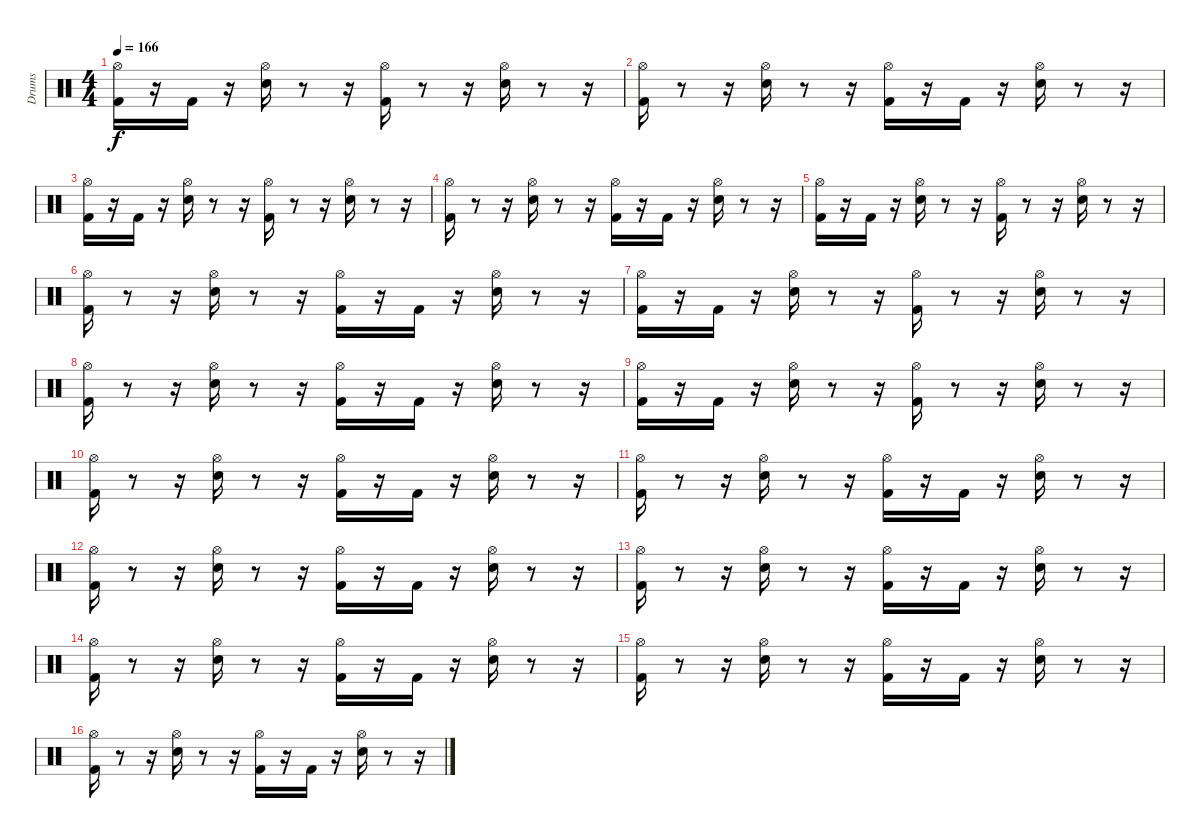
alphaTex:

\track ("Drums" "Drums") {instrument percussion}
\staff {score}
\articulation defaults
\ts (4 4)
\tempo 166
\clef neutral
\ks c
("Hi-Hat (open)" "Kick (hit) 2").16{dy f} r.16 "Kick (hit) 2".16 r.16 ("Snare (hit) 2" "Hi-Hat (open)").16 r.8 r.16 ("Hi-Hat (open)" "Kick (hit) 2").16 r.8 r.16 ("Hi-Hat (open)" "Snare (hit) 2").16 r.8 r.16 |
("Hi-Hat (open)" "Kick (hit) 2").16 r.8 r.16 ("Snare (hit) 2" "Hi-Hat (open)").16 r.8 r.16 ("Kick (hit) 2" "Hi-Hat (open)").16 r.16 "Kick (hit) 2".16 r.16 ("Hi-Hat (open)" "Snare (hit) 2").16 r.8 r.16 |
("Hi-Hat (open)" "Kick (hit) 2").16 r.16 "Kick (hit) 2".16 r.16 ("Snare (hit) 2" "Hi-Hat (open)").16 r.8 r.16 ("Hi-Hat (open)" "Kick (hit) 2").16 r.8 r.16 ("Hi-Hat (open)" "Snare (hit) 2").16 r.8 r.16 |
("Hi-Hat (open)" "Kick (hit) 2").16 r.8 r.16 ("Snare (hit) 2" "Hi-Hat (open)").16 r.8 r.16 ("Kick (hit) 2" "Hi-Hat (open)").16 r.16 "Kick (hit) 2".16 r.16 ("Hi-Hat (open)" "Snare (hit) 2").16 r.8 r.16 |
("Hi-Hat (open)" "Kick (hit) 2").16 r.16 "Kick (hit) 2".16 r.16 ("Snare (hit) 2" "Hi-Hat (open)").16 r.8 r.16 ("Hi-Hat (open)" "Kick (hit) 2").16 r.8 r.16 ("Hi-Hat (open)" "Snare (hit) 2").16 r.8 r.16 |
("Hi-Hat (open)" "Kick (hit) 2").16 r.8 r.16 ("Snare (hit) 2" "Hi-Hat (open)").16 r.8 r.16 ("Kick (hit) 2" "Hi-Hat (open)").16 r.16 "Kick (hit) 2".16 r.16 ("Hi-Hat (open)" "Snare (hit) 2").16 r.8 r.16 |
("Hi-Hat (open)" "Kick (hit) 2").16 r.16 "Kick (hit) 2".16 r.16 ("Snare (hit) 2" "Hi-Hat (open)").16 r.8 r.16 ("Hi-Hat (open)" "Kick (hit) 2").16 r.8 r.16 ("Hi-Hat (open)" "Snare (hit) 2").16 r.8 r.16 |
("Hi-Hat (open)" "Kick (hit) 2").16 r.8 r.16 ("Snare (hit) 2" "Hi-Hat (open)").16 r.8 r.16 ("Kick (hit) 2" "Hi-Hat (open)").16 r.16 "Kick (hit) 2".16 r.16 ("Hi-Hat (open)" "Snare (hit) 2").16 r.8 r.16 |
("Hi-Hat (open)" "Kick (hit) 2").16 r.16 "Kick (hit) 2".16 r.16 ("Snare (hit) 2" "Hi-Hat (open)").16 r.8 r.16 ("Hi-Hat (open)" "Kick (hit) 2").16 r.8 r.16 ("Hi-Hat (open)" "Snare (hit) 2").16 r.8 r.16 |
("Hi-Hat (open)" "Kick (hit) 2").16 r.8 r.16 ("Snare (hit) 2" "Hi-Hat (open)").16 r.8 r.16 ("Kick (hit) 2" "Hi-Hat (open)").16 r.16 "Kick (hit) 2".16 r.16 ("Hi-Hat (open)" "Snare (hit) 2").16 r.8 r.16 |
("Hi-Hat (open)" "Kick (hit) 2").16 r.8 r.16 ("Snare (hit) 2" "Hi-Hat (open)").16 r.8 r.16 ("Kick (hit) 2" "Hi-Hat (open)").16 r.16 "Kick (hit) 2".16 r.16 ("Hi-Hat (open)" "Snare (hit) 2").16 r.8 r.16 |
("Hi-Hat (open)" "Kick (hit) 2").16 r.8 r.16 ("Snare (hit) 2" "Hi-Hat (open)").16 r.8 r.16 ("Kick (hit) 2" "Hi-Hat (open)").16 r.16 "Kick (hit) 2".16 r.16 ("Hi-Hat (open)" "Snare (hit) 2").16 r.8 r.16 |
("Hi-Hat (open)" "Kick (hit) 2").16 r.8 r.16 ("Snare (hit) 2" "Hi-Hat (open)").16 r.8 r.16 ("Kick (hit) 2" "Hi-Hat (open)").16 r.16 "Kick (hit) 2".16 r.16 ("Hi-Hat (open)" "Snare (hit) 2").16 r.8 r.16 |
("Hi-Hat (open)" "Kick (hit) 2").16 r.8 r.16 ("Snare (hit) 2" "Hi-Hat (open)").16 r.8 r.16 ("Kick (hit) 2" "Hi-Hat (open)").16 r.16 "Kick (hit) 2".16 r.16 ("Hi-Hat (open)" "Snare (hit) 2").16 r.8 r.16 |
("Hi-Hat (open)" "Kick (hit) 2").16 r.8 r.16 ("Snare (hit) 2" "Hi-Hat (open)").16 r.8 r.16 ("Kick (hit) 2" "Hi-Hat (open)").16 r.16 "Kick (hit) 2".16 r.16 ("Hi-Hat (open)" "Snare (hit) 2").16 r.8 r.16 |
("Hi-Hat (open)" "Kick (hit) 2").16 r.8 r.16 ("Snare (hit) 2" "Hi-Hat (open)").16 r.8 r.16 ("Kick (hit) 2" "Hi-Hat (open)").16 r.16 "Kick (hit) 2".16 r.16 ("Hi-Hat (open)" "Snare (hit) 2").16 r.8 r.16
